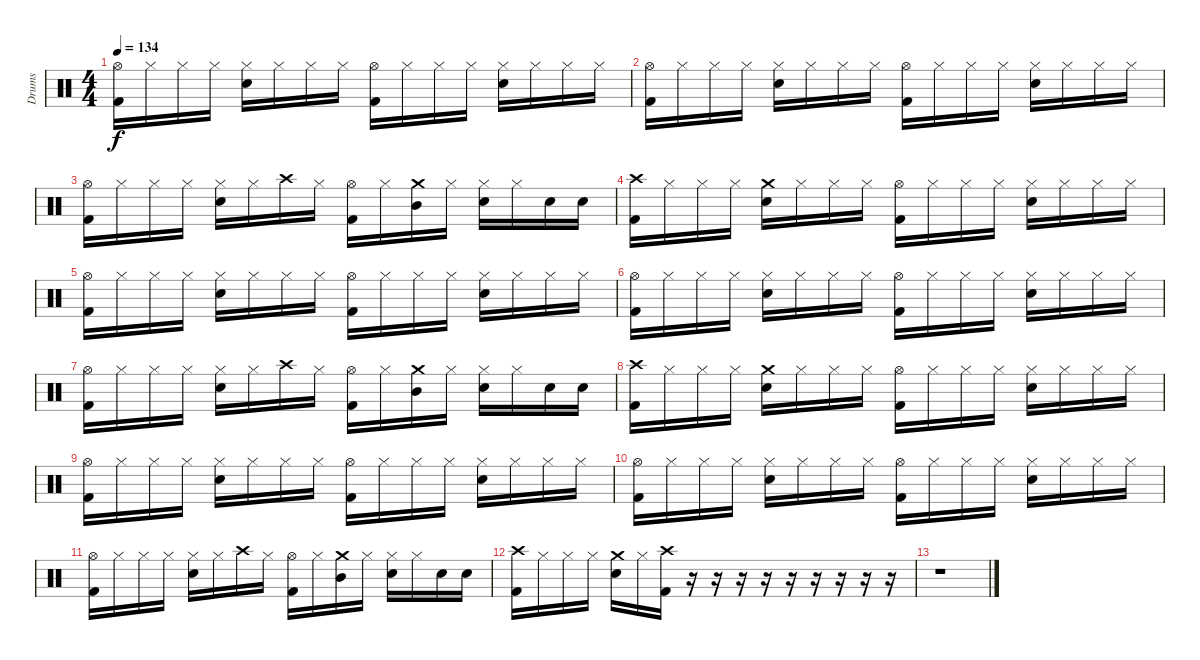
\track ("Drums" "Drums") {instrument percussion}
\staff {score}
\articulation defaults
\ts (4 4)
\tempo 134
\clef neutral
\ks c
("Hi-Hat (open)" "Kick (hit) 2").16{dy f} "Hi-Hat (closed)".16 "Hi-Hat (closed)".16 "Hi-Hat (closed)".16 ("Hi-Hat (closed)" "Snare (hit) 2").16 "Hi-Hat (closed)".16 "Hi-Hat (closed)".16 "Hi-Hat (closed)".16 ("Hi-Hat (open)" "Kick (hit) 2").16 "Hi-Hat (closed)".16 "Hi-Hat (closed)".16 "Hi-Hat (closed)".16 ("Hi-Hat (closed)" "Snare (hit) 2").16 "Hi-Hat (closed)".16 "Hi-Hat (closed)".16 "Hi-Hat (closed)".16 |
("Hi-Hat (open)" "Kick (hit) 2").16 "Hi-Hat (closed)".16 "Hi-Hat (closed)".16 "Hi-Hat (closed)".16 ("Hi-Hat (closed)" "Snare (hit) 2").16 "Hi-Hat (closed)".16 "Hi-Hat (closed)".16 "Hi-Hat (closed)".16 ("Hi-Hat (open)" "Kick (hit) 2").16 "Hi-Hat (closed)".16 "Hi-Hat (closed)".16 "Hi-Hat (closed)".16 ("Hi-Hat (closed)" "Snare (hit) 2").16 "Hi-Hat (closed)".16 "Hi-Hat (closed)".16 "Hi-Hat (closed)".16 |
("Hi-Hat (open)" "Kick (hit) 2").16 "Hi-Hat (closed)".16 "Hi-Hat (closed)".16 "Hi-Hat (closed)".16 ("Hi-Hat (closed)" "Snare (hit) 2").16 "Hi-Hat (closed)".16 "Crash high (hit)".16 "Hi-Hat (closed)".16 ("Hi-Hat (open)" "Kick (hit) 2").16 "Hi-Hat (closed)".16 ("Crash medium (hit)" "Mid Tom (hit)").16 "Hi-Hat (closed)".16 ("Hi-Hat (closed)" "Snare (hit) 2").16 "Hi-Hat (closed)".16 "Snare (hit) 2".16 "Snare (hit) 2".16 |
("Crash high (hit)" "Kick (hit) 2").16 "Hi-Hat (closed)".16 "Hi-Hat (closed)".16 "Hi-Hat (closed)".16 ("Crash medium (hit)" "Snare (hit) 2").16 "Hi-Hat (closed)".16 "Hi-Hat (closed)".16 "Hi-Hat (closed)".16 ("Hi-Hat (open)" "Kick (hit) 2").16 "Hi-Hat (closed)".16 "Hi-Hat (closed)".16 "Hi-Hat (closed)".16 ("Hi-Hat (closed)" "Snare (hit) 2").16 "Hi-Hat (closed)".16 "Hi-Hat (closed)".16 "Hi-Hat (closed)".16 |
("Hi-Hat (open)" "Kick (hit) 2").16 "Hi-Hat (closed)".16 "Hi-Hat (closed)".16 "Hi-Hat (closed)".16 ("Hi-Hat (closed)" "Snare (hit) 2").16 "Hi-Hat (closed)".16 "Hi-Hat (closed)".16 "Hi-Hat (closed)".16 ("Hi-Hat (open)" "Kick (hit) 2").16 "Hi-Hat (closed)".16 "Hi-Hat (closed)".16 "Hi-Hat (closed)".16 ("Hi-Hat (closed)" "Snare (hit) 2").16 "Hi-Hat (closed)".16 "Hi-Hat (closed)".16 "Hi-Hat (closed)".16 |
("Hi-Hat (open)" "Kick (hit) 2").16 "Hi-Hat (closed)".16 "Hi-Hat (closed)".16 "Hi-Hat (closed)".16 ("Hi-Hat (closed)" "Snare (hit) 2").16 "Hi-Hat (closed)".16 "Hi-Hat (closed)".16 "Hi-Hat (closed)".16 ("Hi-Hat (open)" "Kick (hit) 2").16 "Hi-Hat (closed)".16 "Hi-Hat (closed)".16 "Hi-Hat (closed)".16 ("Hi-Hat (closed)" "Snare (hit) 2").16 "Hi-Hat (closed)".16 "Hi-Hat (closed)".16 "Hi-Hat (closed)".16 |
("Hi-Hat (open)" "Kick (hit) 2").16 "Hi-Hat (closed)".16 "Hi-Hat (closed)".16 "Hi-Hat (closed)".16 ("Hi-Hat (closed)" "Snare (hit) 2").16 "Hi-Hat (closed)".16 "Crash high (hit)".16 "Hi-Hat (closed)".16 ("Hi-Hat (open)" "Kick (hit) 2").16 "Hi-Hat (closed)".16 ("Crash medium (hit)" "Mid Tom (hit)").16 "Hi-Hat (closed)".16 ("Hi-Hat (closed)" "Snare (hit) 2").16 "Hi-Hat (closed)".16 "Snare (hit) 2".16 "Snare (hit) 2".16 |
("Crash high (hit)" "Kick (hit) 2").16 "Hi-Hat (closed)".16 "Hi-Hat (closed)".16 "Hi-Hat (closed)".16 ("Crash medium (hit)" "Snare (hit) 2").16 "Hi-Hat (closed)".16 "Hi-Hat (closed)".16 "Hi-Hat (closed)".16 ("Hi-Hat (open)" "Kick (hit) 2").16 "Hi-Hat (closed)".16 "Hi-Hat (closed)".16 "Hi-Hat (closed)".16 ("Hi-Hat (closed)" "Snare (hit) 2").16 "Hi-Hat (closed)".16 "Hi-Hat (closed)".16 "Hi-Hat (closed)".16 |
("Hi-Hat (open)" "Kick (hit) 2").16 "Hi-Hat (closed)".16 "Hi-Hat (closed)".16 "Hi-Hat (closed)".16 ("Hi-Hat (closed)" "Snare (hit) 2").16 "Hi-Hat (closed)".16 "Hi-Hat (closed)".16 "Hi-Hat (closed)".16 ("Hi-Hat (open)" "Kick (hit) 2").16 "Hi-Hat (closed)".16 "Hi-Hat (closed)".16 "Hi-Hat (closed)".16 ("Hi-Hat (closed)" "Snare (hit) 2").16 "Hi-Hat (closed)".16 "Hi-Hat (closed)".16 "Hi-Hat (closed)".16 |
("Hi-Hat (open)" "Kick (hit) 2").16 "Hi-Hat (closed)".16 "Hi-Hat (closed)".16 "Hi-Hat (closed)".16 ("Hi-Hat (closed)" "Snare (hit) 2").16 "Hi-Hat (closed)".16 "Hi-Hat (closed)".16 "Hi-Hat (closed)".16 ("Hi-Hat (open)" "Kick (hit) 2").16 "Hi-Hat (closed)".16 "Hi-Hat (closed)".16 "Hi-Hat (closed)".16 ("Hi-Hat (closed)" "Snare (hit) 2").16 "Hi-Hat (closed)".16 "Hi-Hat (closed)".16 "Hi-Hat (closed)".16 |
("Hi-Hat (open)" "Kick (hit) 2").16 "Hi-Hat (closed)".16 "Hi-Hat (closed)".16 "Hi-Hat (closed)".16 ("Hi-Hat (closed)" "Snare (hit) 2").16 "Hi-Hat (closed)".16 "Crash high (hit)".16 "Hi-Hat (closed)".16 ("Hi-Hat (open)" "Kick (hit) 2").16 "Hi-Hat (closed)".16 ("Crash medium (hit)" "Mid Tom (hit)").16 "Hi-Hat (closed)".16 ("Hi-Hat (closed)" "Snare (hit) 2").16 "Hi-Hat (closed)".16 "Snare (hit) 2".16 "Snare (hit) 2".16 |
("Crash high (hit)" "Kick (hit) 2").16 "Hi-Hat (closed)".16 "Hi-Hat (closed)".16 "Hi-Hat (closed)".16 ("Crash medium (hit)" "Snare (hit) 2").16 "Hi-Hat (closed)".16 ("Crash high (hit)" "Kick (hit) 2").16 r.16 r.16 r.16 r.16 r.16 r.16 r.16 r.16 r.16 |
r.1
